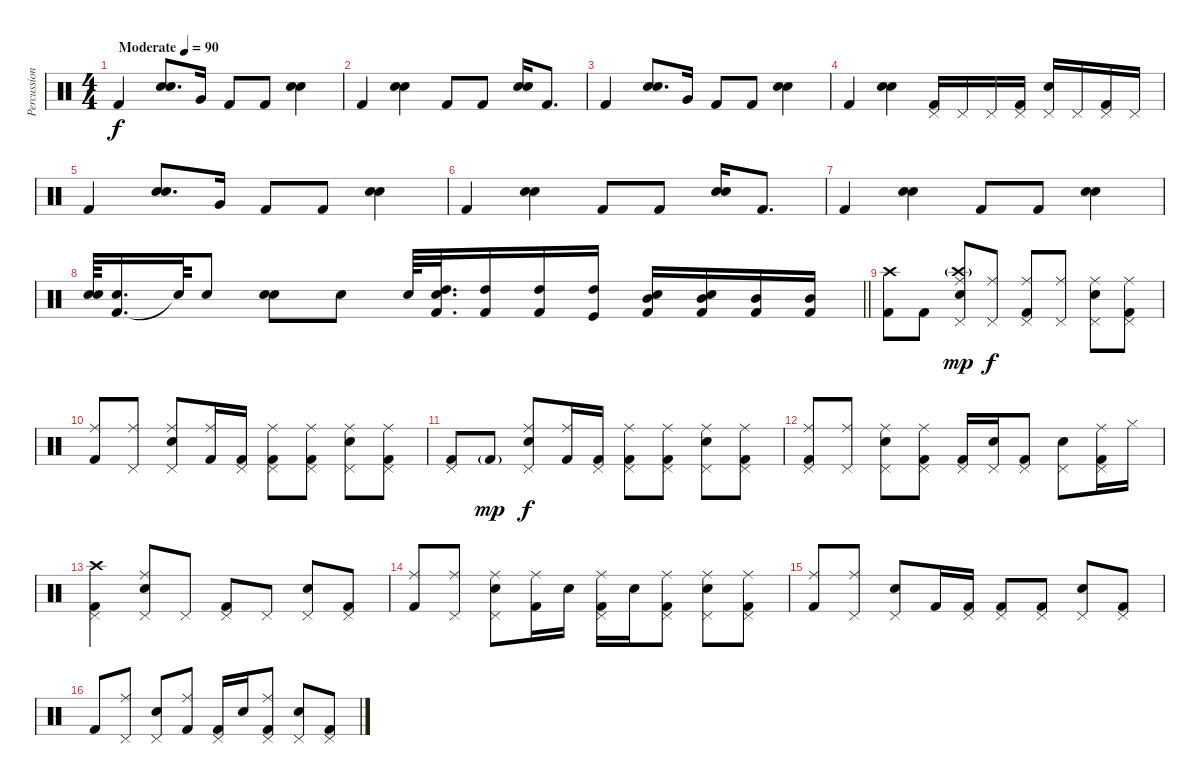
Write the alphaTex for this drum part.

\track ("Percussion" "Percussion") {instrument percussion}
\staff {score}
\articulation defaults
\ts (4 4)
\tempo (90 "Moderate")
\clef neutral
\ks c "Kick (hit) 2".4{dy f}
("Hand Clap (hit)" "Snare (hit) 2").8{d} "Very Low Tom (hit)".16 "Kick (hit) 2".8 "Kick (hit) 2".8 ("Hand Clap (hit)" "Snare (hit) 2").4 |
"Kick (hit) 2".4 ("Hand Clap (hit)" "Snare (hit) 2").4 "Kick (hit) 2".8 "Kick (hit) 2".8 ("Hand Clap (hit)" "Snare (hit) 2").16 "Kick (hit) 2".8{d} |
"Kick (hit) 2".4 ("Hand Clap (hit)" "Snare (hit) 2").8{d} "Very Low Tom (hit)".16 "Kick (hit) 2".8 "Kick (hit) 2".8 ("Hand Clap (hit)" "Snare (hit) 2").4 |
"Kick (hit) 2".4 ("Hand Clap (hit)" "Snare (hit) 2").4 ("Kick (hit) 2" "Pedal Hi-Hat (hit)").16 "Pedal Hi-Hat (hit)".16 "Pedal Hi-Hat (hit)".16 ("Kick (hit) 2" "Pedal Hi-Hat (hit)").16 ("Snare (hit) 2" "Pedal Hi-Hat (hit)").16 "Pedal Hi-Hat (hit)".16 ("Kick (hit) 2" "Pedal Hi-Hat (hit)").16 "Pedal Hi-Hat (hit)".16 |
"Kick (hit) 2".4 ("Hand Clap (hit)" "Snare (hit) 2").8{d} "Very Low Tom (hit)".16 "Kick (hit) 2".8 "Kick (hit) 2".8 ("Hand Clap (hit)" "Snare (hit) 2").4 |
"Kick (hit) 2".4 ("Hand Clap (hit)" "Snare (hit) 2").4 "Kick (hit) 2".8 "Kick (hit) 2".8 ("Hand Clap (hit)" "Snare (hit) 2").16 "Kick (hit) 2".8{d} |
"Kick (hit) 2".4 ("Hand Clap (hit)" "Snare (hit) 2").4 "Kick (hit) 2".8 "Kick (hit) 2".8 ("Hand Clap (hit)" "Snare (hit) 2").4 |
\barLineRight lightlight
("Snare (hit) 2" "Hand Clap (hit)").64 ("Kick (hit) 2" "Snare (hit) 2").16{d} "Snare (hit)"{t}.64 "Snare (hit) 2".8 ("Hand Clap (hit)" "Snare (hit) 2").8 "Snare (hit) 2".8 "Snare (hit) 2".64 ("Kick (hit) 2" "Snare (hit) 2" "High Tom (hit)").32{d} ("Kick (hit) 2" "High Tom (hit)").16 ("Kick (hit) 2" "High Tom (hit)").16 ("Kick (hit)" "High Tom (hit)").16 ("Kick (hit) 2" "Mid Tom (hit)" "Hand Clap (hit)").16 ("Kick (hit) 2" "Snare (hit) 2" "Mid Tom (hit)").16 ("Kick (hit) 2" "Mid Tom (hit)").16 ("Kick (hit) 2" "Mid Tom (hit)").16 |
("Kick (hit) 2" "Crash high (hit)").8 "Kick (hit) 2".8 ("Snare (hit) 2" "Pedal Hi-Hat (hit)" "Crash high (hit)"{g} "Ride (middle)").8{dy mp} ("Pedal Hi-Hat (hit)" "Ride (middle)").8{dy f} ("Kick (hit) 2" "Pedal Hi-Hat (hit)" "Ride (middle)").8 ("Pedal Hi-Hat (hit)" "Ride (middle)").8 ("Snare (hit) 2" "Pedal Hi-Hat (hit)" "Ride (middle)").8 ("Kick (hit) 2" "Pedal Hi-Hat (hit)" "Ride (middle)").8 |
("Kick (hit) 2" "Ride (middle)").8 ("Pedal Hi-Hat (hit)" "Ride (middle)").8 ("Snare (hit) 2" "Pedal Hi-Hat (hit)" "Ride (middle)").8 ("Kick (hit) 2" "Ride (middle)").16 ("Kick (hit) 2" "Pedal Hi-Hat (hit)").16 ("Kick (hit) 2" "Pedal Hi-Hat (hit)" "Ride (middle)").8 ("Kick (hit) 2" "Pedal Hi-Hat (hit)" "Ride (middle)").8 ("Snare (hit) 2" "Pedal Hi-Hat (hit)" "Ride (middle)").8 ("Kick (hit) 2" "Pedal Hi-Hat (hit)" "Ride (middle)").8 |
("Kick (hit) 2" "Pedal Hi-Hat (hit)").8 "Kick (hit) 2"{g}.8{dy mp} ("Snare (hit) 2" "Pedal Hi-Hat (hit)" "Ride (middle)").8{dy f} ("Kick (hit) 2" "Ride (middle)").16 ("Kick (hit) 2" "Pedal Hi-Hat (hit)").16 ("Kick (hit) 2" "Pedal Hi-Hat (hit)" "Ride (middle)").8 ("Kick (hit) 2" "Pedal Hi-Hat (hit)" "Ride (middle)").8 ("Snare (hit) 2" "Pedal Hi-Hat (hit)" "Ride (middle)").8 ("Kick (hit) 2" "Pedal Hi-Hat (hit)" "Ride (middle)").8 |
("Kick (hit) 2" "Pedal Hi-Hat (hit)" "Ride (middle)").8 ("Pedal Hi-Hat (hit)" "Ride (middle)").8 ("Snare (hit) 2" "Pedal Hi-Hat (hit)" "Ride (middle)").8 ("Kick (hit) 2" "Pedal Hi-Hat (hit)" "Ride (middle)").8 ("Kick (hit) 2" "Pedal Hi-Hat (hit)").16 ("Snare (hit) 2" "Pedal Hi-Hat (hit)").16 ("Kick (hit) 2" "Pedal Hi-Hat (hit)").8 ("Snare (hit) 2" "Pedal Hi-Hat (hit)").8 ("Kick (hit) 2" "Pedal Hi-Hat (hit)" "Ride (middle)").16 "Hi-Hat (closed)".16 |
("Kick (hit) 2" "Pedal Hi-Hat (hit)" "Crash high (hit)").4 ("Snare (hit) 2" "Pedal Hi-Hat (hit)" "Ride (middle)").8 "Pedal Hi-Hat (hit)".8 ("Kick (hit) 2" "Pedal Hi-Hat (hit)").8 "Pedal Hi-Hat (hit)".8 ("Snare (hit) 2" "Pedal Hi-Hat (hit)").8 ("Kick (hit) 2" "Pedal Hi-Hat (hit)").8 |
("Kick (hit) 2" "Ride (middle)").8 ("Pedal Hi-Hat (hit)" "Ride (middle)").8 ("Snare (hit) 2" "Pedal Hi-Hat (hit)" "Ride (middle)").8 ("Kick (hit) 2" "Ride (middle)").16 "Snare (hit) 2".16 ("Kick (hit) 2" "Pedal Hi-Hat (hit)" "Ride (middle)").16 "Snare (hit) 2".16 ("Kick (hit) 2" "Pedal Hi-Hat (hit)" "Ride (middle)").8 ("Snare (hit) 2" "Pedal Hi-Hat (hit)" "Ride (middle)").8 ("Kick (hit) 2" "Pedal Hi-Hat (hit)" "Ride (middle)").8 |
("Kick (hit) 2" "Ride (middle)").8 ("Pedal Hi-Hat (hit)" "Ride (middle)").8 ("Snare (hit) 2" "Pedal Hi-Hat (hit)").8 "Kick (hit) 2".16 ("Kick (hit) 2" "Pedal Hi-Hat (hit)").16 ("Kick (hit) 2" "Pedal Hi-Hat (hit)").8 ("Kick (hit) 2" "Pedal Hi-Hat (hit)").8 ("Snare (hit) 2" "Pedal Hi-Hat (hit)").8 ("Kick (hit) 2" "Pedal Hi-Hat (hit)").8 |
"Kick (hit) 2".8 ("Pedal Hi-Hat (hit)" "Ride (middle)").8 ("Snare (hit) 2" "Pedal Hi-Hat (hit)").8 ("Kick (hit) 2" "Ride (middle)").8 ("Kick (hit) 2" "Pedal Hi-Hat (hit)").16 "Snare (hit) 2".16 ("Kick (hit) 2" "Pedal Hi-Hat (hit)" "Ride (middle)").8 ("Snare (hit) 2" "Pedal Hi-Hat (hit)").8 ("Kick (hit) 2" "Pedal Hi-Hat (hit)").8
